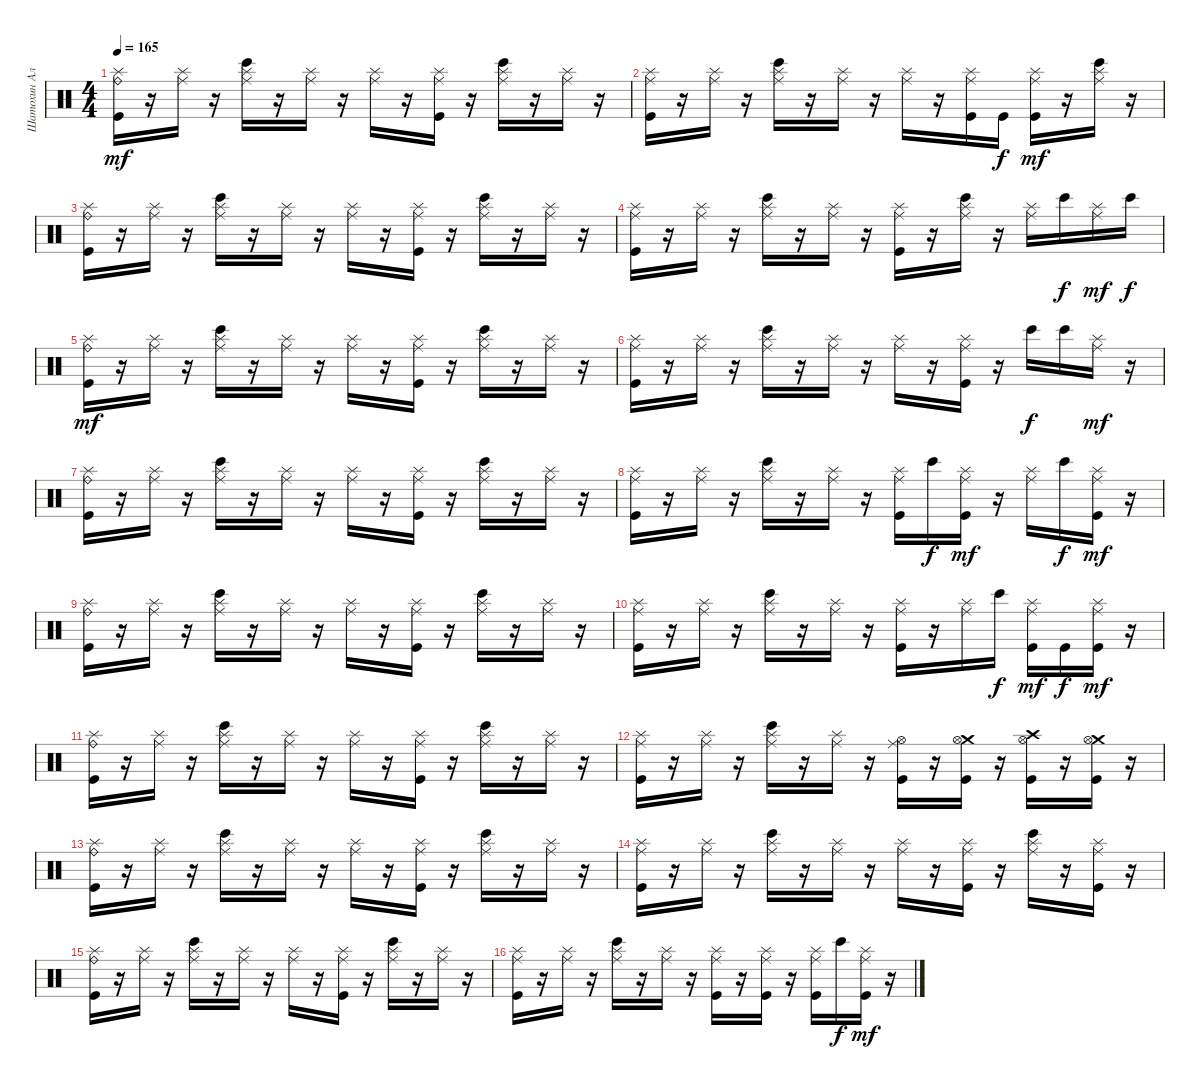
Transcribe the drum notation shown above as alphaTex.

\track ("Шатохин Алексей" "Шатохин Ал") {instrument percussion}
\staff {score}
\articulation defaults
\ts (4 4)
\tempo 165
\clef neutral
\ks c
("Kick (hit)" "Ride (bell)" "Splash (hit)").16{dy mf} r.16 ("Ride (middle)" "Splash (hit)").16 r.16 ("Bongo High (hit)" "Ride (middle)" "Splash (hit)").16 r.16 ("Ride (middle)" "Splash (hit)").16 r.16 ("Ride (middle)" "Splash (hit)").16 r.16 ("Kick (hit)" "Ride (middle)" "Splash (hit)").16 r.16 ("Bongo High (hit)" "Ride (middle)" "Splash (hit)").16 r.16 ("Ride (middle)" "Splash (hit)").16 r.16 |
("Kick (hit)" "Ride (middle)" "Splash (hit)").16 r.16 ("Ride (middle)" "Splash (hit)").16 r.16 ("Bongo High (hit)" "Ride (middle)" "Splash (hit)").16 r.16 ("Ride (middle)" "Splash (hit)").16 r.16 ("Ride (middle)" "Splash (hit)").16 r.16 ("Kick (hit)" "Ride (middle)" "Splash (hit)").16 "Kick (hit)".16{dy f} ("Kick (hit)" "Ride (middle)" "Splash (hit)").16{dy mf} r.16 ("Bongo High (hit)" "Ride (middle)" "Splash (hit)").16 r.16 |
("Kick (hit)" "Ride (bell)" "Splash (hit)").16 r.16 ("Ride (middle)" "Splash (hit)").16 r.16 ("Bongo High (hit)" "Ride (middle)" "Splash (hit)").16 r.16 ("Ride (middle)" "Splash (hit)").16 r.16 ("Ride (middle)" "Splash (hit)").16 r.16 ("Kick (hit)" "Ride (middle)" "Splash (hit)").16 r.16 ("Bongo High (hit)" "Ride (middle)" "Splash (hit)").16 r.16 ("Ride (middle)" "Splash (hit)").16 r.16 |
("Kick (hit)" "Ride (middle)" "Splash (hit)").16 r.16 ("Ride (middle)" "Splash (hit)").16 r.16 ("Bongo High (hit)" "Ride (middle)" "Splash (hit)").16 r.16 ("Ride (middle)" "Splash (hit)").16 r.16 ("Kick (hit)" "Ride (middle)" "Splash (hit)").16 r.16 ("Bongo High (hit)" "Ride (middle)" "Splash (hit)").16 r.16 ("Ride (middle)" "Splash (hit)").16 "Bongo High (hit)".16{dy f} ("Ride (middle)" "Splash (hit)").16{dy mf} "Bongo High (hit)".16{dy f} |
("Kick (hit)" "Ride (bell)" "Splash (hit)").16{dy mf} r.16 ("Ride (middle)" "Splash (hit)").16 r.16 ("Bongo High (hit)" "Ride (middle)" "Splash (hit)").16 r.16 ("Ride (middle)" "Splash (hit)").16 r.16 ("Ride (middle)" "Splash (hit)").16 r.16 ("Kick (hit)" "Ride (middle)" "Splash (hit)").16 r.16 ("Bongo High (hit)" "Ride (middle)" "Splash (hit)").16 r.16 ("Ride (middle)" "Splash (hit)").16 r.16 |
("Kick (hit)" "Ride (middle)" "Splash (hit)").16 r.16 ("Ride (middle)" "Splash (hit)").16 r.16 ("Bongo High (hit)" "Ride (middle)" "Splash (hit)").16 r.16 ("Ride (middle)" "Splash (hit)").16 r.16 ("Ride (middle)" "Splash (hit)").16 r.16 ("Kick (hit)" "Ride (middle)" "Splash (hit)").16 r.16 "Bongo High (hit)".16{dy f} "Bongo High (hit)".16 ("Ride (middle)" "Splash (hit)").16{dy mf} r.16 |
("Kick (hit)" "Ride (bell)" "Splash (hit)").16 r.16 ("Ride (middle)" "Splash (hit)").16 r.16 ("Bongo High (hit)" "Ride (middle)" "Splash (hit)").16 r.16 ("Ride (middle)" "Splash (hit)").16 r.16 ("Ride (middle)" "Splash (hit)").16 r.16 ("Kick (hit)" "Ride (middle)" "Splash (hit)").16 r.16 ("Bongo High (hit)" "Ride (middle)" "Splash (hit)").16 r.16 ("Ride (middle)" "Splash (hit)").16 r.16 |
("Kick (hit)" "Ride (middle)" "Splash (hit)").16 r.16 ("Ride (middle)" "Splash (hit)").16 r.16 ("Bongo High (hit)" "Ride (middle)" "Splash (hit)").16 r.16 ("Ride (middle)" "Splash (hit)").16 r.16 ("Kick (hit)" "Ride (middle)" "Splash (hit)").16 "Bongo High (hit)".16{dy f} ("Kick (hit)" "Ride (middle)" "Splash (hit)").16{dy mf} r.16 ("Ride (middle)" "Splash (hit)").16 "Bongo High (hit)".16{dy f} ("Kick (hit)" "Ride (middle)" "Splash (hit)").16{dy mf} r.16 |
("Kick (hit)" "Ride (bell)" "Splash (hit)").16 r.16 ("Ride (middle)" "Splash (hit)").16 r.16 ("Bongo High (hit)" "Ride (middle)" "Splash (hit)").16 r.16 ("Ride (middle)" "Splash (hit)").16 r.16 ("Ride (middle)" "Splash (hit)").16 r.16 ("Kick (hit)" "Ride (middle)" "Splash (hit)").16 r.16 ("Bongo High (hit)" "Ride (middle)" "Splash (hit)").16 r.16 ("Ride (middle)" "Splash (hit)").16 r.16 |
("Kick (hit)" "Ride (middle)" "Splash (hit)").16 r.16 ("Ride (middle)" "Splash (hit)").16 r.16 ("Bongo High (hit)" "Ride (middle)" "Splash (hit)").16 r.16 ("Ride (middle)" "Splash (hit)").16 r.16 ("Kick (hit)" "Ride (middle)" "Splash (hit)").16 r.16 ("Ride (middle)" "Splash (hit)").16 "Bongo High (hit)".16{dy f} ("Kick (hit)" "Ride (middle)" "Splash (hit)").16{dy mf} "Kick (hit)".16{dy f} ("Kick (hit)" "Ride (middle)" "Splash (hit)").16{dy mf} r.16 |
("Kick (hit)" "Ride (bell)" "Splash (hit)").16 r.16 ("Ride (middle)" "Splash (hit)").16 r.16 ("Bongo High (hit)" "Ride (middle)" "Splash (hit)").16 r.16 ("Ride (middle)" "Splash (hit)").16 r.16 ("Ride (middle)" "Splash (hit)").16 r.16 ("Kick (hit)" "Ride (middle)" "Splash (hit)").16 r.16 ("Bongo High (hit)" "Ride (middle)" "Splash (hit)").16 r.16 ("Ride (middle)" "Splash (hit)").16 r.16 |
("Kick (hit)" "Ride (middle)" "Splash (hit)").16 r.16 ("Ride (middle)" "Splash (hit)").16 r.16 ("Bongo High (hit)" "Ride (middle)" "Splash (hit)").16 r.16 ("Ride (middle)" "Splash (hit)").16 r.16 ("Kick (hit)" "Ride (middle)" "Hi-Hat (open)").16 r.16 ("Kick (hit)" "Crash medium (hit)" "Hi-Hat (open)").16 r.16 ("Kick (hit)" "Crash high (hit)" "Hi-Hat (open)").16 r.16 ("Kick (hit)" "Crash medium (hit)" "Hi-Hat (open)").16 r.16 |
("Kick (hit)" "Ride (bell)" "Splash (hit)").16 r.16 ("Ride (middle)" "Splash (hit)").16 r.16 ("Bongo High (hit)" "Ride (middle)" "Splash (hit)").16 r.16 ("Ride (middle)" "Splash (hit)").16 r.16 ("Ride (middle)" "Splash (hit)").16 r.16 ("Kick (hit)" "Ride (middle)" "Splash (hit)").16 r.16 ("Bongo High (hit)" "Ride (middle)" "Splash (hit)").16 r.16 ("Ride (middle)" "Splash (hit)").16 r.16 |
("Kick (hit)" "Ride (middle)" "Splash (hit)").16 r.16 ("Ride (middle)" "Splash (hit)").16 r.16 ("Bongo High (hit)" "Ride (middle)" "Splash (hit)").16 r.16 ("Ride (middle)" "Splash (hit)").16 r.16 ("Ride (middle)" "Splash (hit)").16 r.16 ("Kick (hit)" "Ride (middle)" "Splash (hit)").16 r.16 ("Bongo High (hit)" "Ride (middle)" "Splash (hit)").16 r.16 ("Kick (hit)" "Ride (middle)" "Splash (hit)").16 r.16 |
("Kick (hit)" "Ride (bell)" "Splash (hit)").16 r.16 ("Ride (middle)" "Splash (hit)").16 r.16 ("Bongo High (hit)" "Ride (middle)" "Splash (hit)").16 r.16 ("Ride (middle)" "Splash (hit)").16 r.16 ("Ride (middle)" "Splash (hit)").16 r.16 ("Kick (hit)" "Ride (middle)" "Splash (hit)").16 r.16 ("Bongo High (hit)" "Ride (middle)" "Splash (hit)").16 r.16 ("Ride (middle)" "Splash (hit)").16 r.16 |
("Kick (hit)" "Ride (middle)" "Splash (hit)").16 r.16 ("Ride (middle)" "Splash (hit)").16 r.16 ("Bongo High (hit)" "Ride (middle)" "Splash (hit)").16 r.16 ("Ride (middle)" "Splash (hit)").16 r.16 ("Kick (hit)" "Ride (middle)" "Splash (hit)").16 r.16 ("Kick (hit)" "Ride (middle)" "Splash (hit)").16 r.16 ("Kick (hit)" "Ride (middle)" "Splash (hit)").16 "Bongo High (hit)".16{dy f} ("Kick (hit)" "Ride (middle)" "Splash (hit)").16{dy mf} r.16
